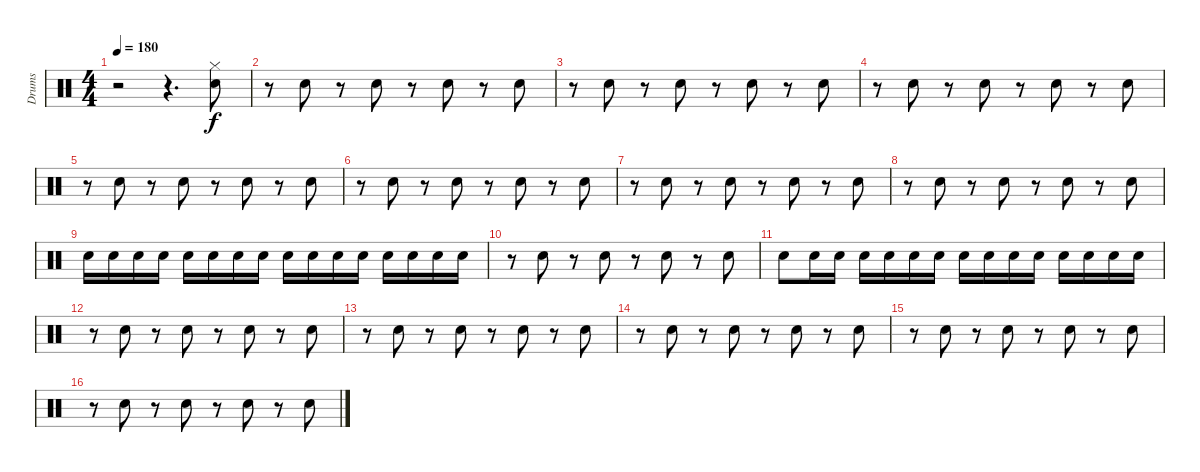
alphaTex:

\track ("Drums" "Drums") {instrument percussion}
\staff {score}
\articulation defaults
\ts (4 4)
\tempo 180
\clef neutral
\ks c
r.2{dy f} r.4{d} ("Electric Snare (hit)" "Hi-Hat (closed)").8 |
r.8 "Electric Snare (hit)".8 r.8 "Electric Snare (hit)".8 r.8 "Electric Snare (hit)".8 r.8 "Electric Snare (hit)".8 |
r.8 "Electric Snare (hit)".8 r.8 "Electric Snare (hit)".8 r.8 "Electric Snare (hit)".8 r.8 "Electric Snare (hit)".8 |
r.8 "Electric Snare (hit)".8 r.8 "Electric Snare (hit)".8 r.8 "Electric Snare (hit)".8 r.8 "Electric Snare (hit)".8 |
r.8 "Electric Snare (hit)".8 r.8 "Electric Snare (hit)".8 r.8 "Electric Snare (hit)".8 r.8 "Electric Snare (hit)".8 |
r.8 "Electric Snare (hit)".8 r.8 "Electric Snare (hit)".8 r.8 "Electric Snare (hit)".8 r.8 "Electric Snare (hit)".8 |
r.8 "Electric Snare (hit)".8 r.8 "Electric Snare (hit)".8 r.8 "Electric Snare (hit)".8 r.8 "Electric Snare (hit)".8 |
r.8 "Electric Snare (hit)".8 r.8 "Electric Snare (hit)".8 r.8 "Electric Snare (hit)".8 r.8 "Electric Snare (hit)".8 |
"Snare (hit) 2".16 "Snare (hit) 2".16 "Snare (hit) 2".16 "Snare (hit) 2".16 "Electric Snare (hit)".16 "Electric Snare (hit)".16 "Electric Snare (hit)".16 "Electric Snare (hit)".16 "Snare (hit) 2".16 "Snare (hit) 2".16 "Snare (hit) 2".16 "Snare (hit) 2".16 "Electric Snare (hit)".16 "Electric Snare (hit)".16 "Electric Snare (hit)".16 "Electric Snare (hit)".16 |
r.8 "Electric Snare (hit)".8 r.8 "Electric Snare (hit)".8 r.8 "Electric Snare (hit)".8 r.8 "Electric Snare (hit)".8 |
"Electric Snare (hit)".8 "Electric Snare (hit)".16 "Electric Snare (hit)".16 "Electric Snare (hit)".16 "Snare (hit) 2".16 "Snare (hit) 2".16 "Snare (hit) 2".16 "Snare (hit) 2".16 "Snare (hit) 2".16 "Snare (hit) 2".16 "Snare (hit) 2".16 "Snare (hit) 2".16 "Snare (hit) 2".16 "Snare (hit) 2".16 "Snare (hit) 2".16 |
r.8 "Electric Snare (hit)".8 r.8 "Electric Snare (hit)".8 r.8 "Electric Snare (hit)".8 r.8 "Electric Snare (hit)".8 |
r.8 "Electric Snare (hit)".8 r.8 "Electric Snare (hit)".8 r.8 "Electric Snare (hit)".8 r.8 "Electric Snare (hit)".8 |
r.8 "Electric Snare (hit)".8 r.8 "Electric Snare (hit)".8 r.8 "Electric Snare (hit)".8 r.8 "Electric Snare (hit)".8 |
r.8 "Electric Snare (hit)".8 r.8 "Electric Snare (hit)".8 r.8 "Electric Snare (hit)".8 r.8 "Electric Snare (hit)".8 |
r.8 "Electric Snare (hit)".8 r.8 "Electric Snare (hit)".8 r.8 "Electric Snare (hit)".8 r.8 "Electric Snare (hit)".8
